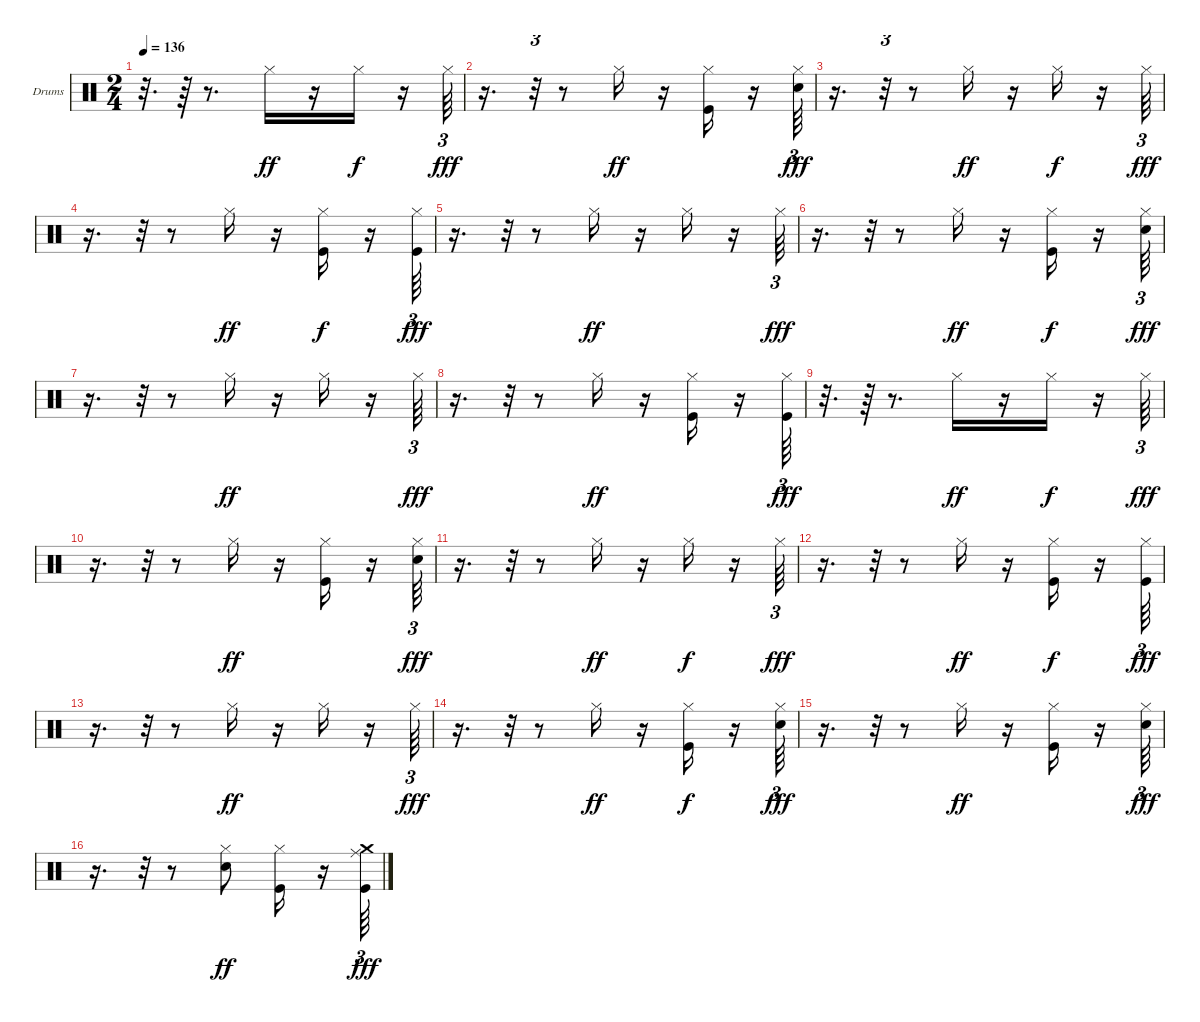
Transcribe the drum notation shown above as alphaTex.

\bracketExtendMode groupsimilarinstruments
\firstSystemTrackNameOrientation horizontal
\otherSystemsTrackNameOrientation horizontal
\track ("Drumkit" "Drums") {solo instrument percussion}
\staff {score}
\articulation defaults
\ts (2 4)
\tempo 136
\clef neutral
\ks c
r.32{d dy fff} r.64 r.8{d} "Hi-Hat (closed)".16{dy ff} r.16 "Hi-Hat (closed)".16{dy f} r.16 "Hi-Hat (closed)".64{tu (3 2) dy fff} |
r.16{d} r.32{tu (3 2)} r.8 "Hi-Hat (closed)".16{dy ff} r.16 ("Hi-Hat (closed)" "Kick (hit)").16 r.16 ("Hi-Hat (closed)" "Snare (hit) 2").64{tu (3 2) dy fff} |
r.16{d} r.32{tu (3 2)} r.8 "Hi-Hat (closed)".16{dy ff} r.16 "Hi-Hat (closed)".16{dy f} r.16 "Hi-Hat (closed)".64{tu (3 2) dy fff} |
r.16{d} r.32{tu (3 2)} r.8 "Hi-Hat (closed)".16{dy ff} r.16 ("Hi-Hat (closed)" "Kick (hit)").16{dy f} r.16 ("Hi-Hat (closed)" "Kick (hit)").64{tu (3 2) dy fff} |
r.16{d} r.32{tu (3 2)} r.8 "Hi-Hat (closed)".16{dy ff} r.16 "Hi-Hat (closed)".16 r.16 "Hi-Hat (closed)".64{tu (3 2) dy fff} |
r.16{d} r.32{tu (3 2)} r.8 "Hi-Hat (closed)".16{dy ff} r.16 ("Hi-Hat (closed)" "Kick (hit)").16{dy f} r.16 ("Hi-Hat (closed)" "Snare (hit) 2").64{tu (3 2) dy fff} |
r.16{d} r.32{tu (3 2)} r.8 "Hi-Hat (closed)".16{dy ff} r.16 "Hi-Hat (closed)".16 r.16 "Hi-Hat (closed)".64{tu (3 2) dy fff} |
r.16{d} r.32{tu (3 2)} r.8 "Hi-Hat (closed)".16{dy ff} r.16 ("Hi-Hat (closed)" "Kick (hit)").16 r.16 ("Hi-Hat (closed)" "Kick (hit)").64{tu (3 2) dy fff} |
r.32{d} r.64 r.8{d} "Hi-Hat (closed)".16{dy ff} r.16 "Hi-Hat (closed)".16{dy f} r.16 "Hi-Hat (closed)".64{tu (3 2) dy fff} |
r.16{d} r.32{tu (3 2)} r.8 "Hi-Hat (closed)".16{dy ff} r.16 ("Hi-Hat (closed)" "Kick (hit)").16 r.16 ("Hi-Hat (closed)" "Snare (hit) 2").64{tu (3 2) dy fff} |
r.16{d} r.32{tu (3 2)} r.8 "Hi-Hat (closed)".16{dy ff} r.16 "Hi-Hat (closed)".16{dy f} r.16 "Hi-Hat (closed)".64{tu (3 2) dy fff} |
r.16{d} r.32{tu (3 2)} r.8 "Hi-Hat (closed)".16{dy ff} r.16 ("Hi-Hat (closed)" "Kick (hit)").16{dy f} r.16 ("Hi-Hat (closed)" "Kick (hit)").64{tu (3 2) dy fff} |
r.16{d} r.32{tu (3 2)} r.8 "Hi-Hat (closed)".16{dy ff} r.16 "Hi-Hat (closed)".16 r.16 "Hi-Hat (closed)".64{tu (3 2) dy fff} |
r.16{d} r.32{tu (3 2)} r.8 "Hi-Hat (closed)".16{dy ff} r.16 ("Hi-Hat (closed)" "Kick (hit)").16{dy f} r.16 ("Hi-Hat (closed)" "Snare (hit) 2").64{tu (3 2) dy fff} |
r.16{d} r.32{tu (3 2)} r.8 "Hi-Hat (closed)".16{dy ff} r.16 ("Hi-Hat (closed)" "Kick (hit)").16 r.16 ("Hi-Hat (closed)" "Snare (hit) 2").64{tu (3 2) dy fff} |
r.16{d} r.32{tu (3 2)} r.8 ("Hi-Hat (closed)" "Snare (hit) 2").8{dy ff} ("Hi-Hat (closed)" "Kick (hit)").16 r.16 ("Crash medium (hit)" "Ride (middle)" "Kick (hit)").64{tu (3 2) dy fff}
